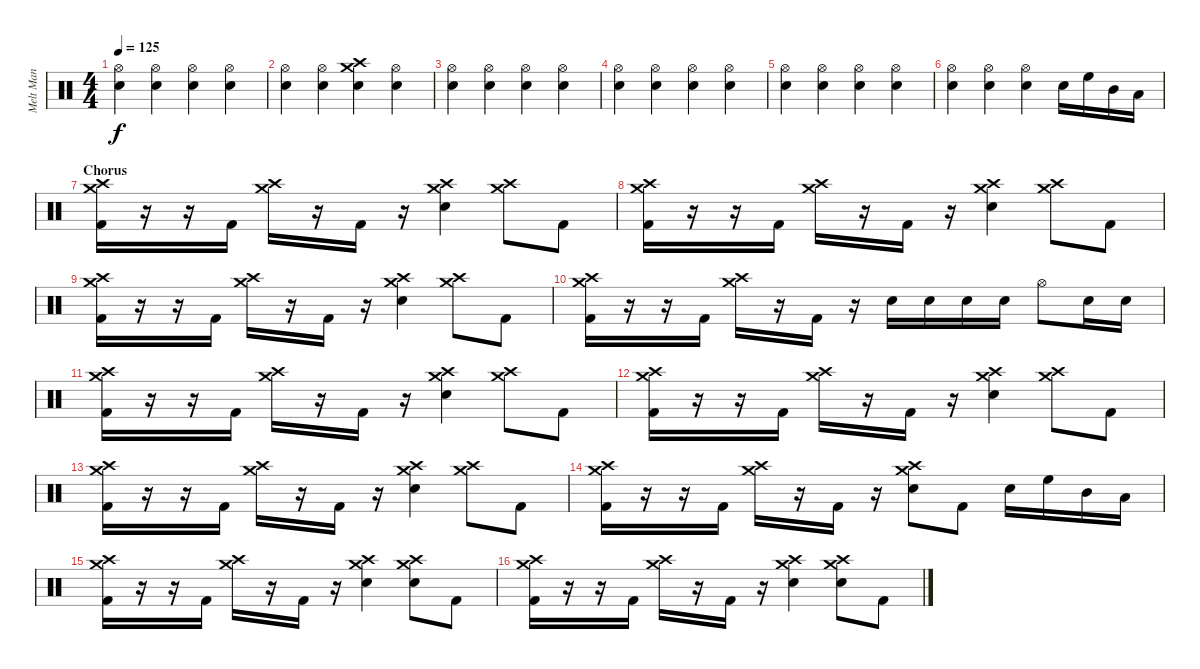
\track ("Melt Man" "Melt Man") {instrument percussion}
\staff {score}
\articulation defaults
\ts (4 4)
\tempo 125
\clef neutral
\ks c
("Hi-Hat (open)" "Snare (hit) 2").4{dy f} ("Hi-Hat (open)" "Snare (hit) 2").4 ("Hi-Hat (open)" "Snare (hit) 2").4 ("Hi-Hat (open)" "Snare (hit) 2").4 |
("Hi-Hat (open)" "Snare (hit) 2").4 ("Hi-Hat (open)" "Snare (hit) 2").4 ("Crash medium (hit)" "Crash high (hit)" "Snare (hit) 2").4 ("Hi-Hat (open)" "Snare (hit) 2").4 |
("Hi-Hat (open)" "Snare (hit) 2").4 ("Hi-Hat (open)" "Snare (hit) 2").4 ("Hi-Hat (open)" "Snare (hit) 2").4 ("Hi-Hat (open)" "Snare (hit) 2").4 |
("Hi-Hat (open)" "Snare (hit) 2").4 ("Hi-Hat (open)" "Snare (hit) 2").4 ("Hi-Hat (open)" "Snare (hit) 2").4 ("Hi-Hat (open)" "Snare (hit) 2").4 |
("Hi-Hat (open)" "Snare (hit) 2").4 ("Hi-Hat (open)" "Snare (hit) 2").4 ("Hi-Hat (open)" "Snare (hit) 2").4 ("Hi-Hat (open)" "Snare (hit) 2").4 |
("Hi-Hat (open)" "Snare (hit) 2").4 ("Hi-Hat (open)" "Snare (hit) 2").4 ("Hi-Hat (open)" "Snare (hit) 2").4 "Snare (hit) 2".16 "High Floor Tom (hit)".16 "Mid Tom (hit)".16 "Low Tom (hit)".16 |
\section ("" "Chorus")
("Crash high (hit)" "Crash medium (hit)" "Kick (hit) 2").16 r.16 r.16 "Kick (hit) 2".16 ("Crash high (hit)" "Crash medium (hit)").16 r.16 "Kick (hit) 2".16 r.16 ("Crash high (hit)" "Crash medium (hit)" "Snare (hit) 2").4 ("Crash high (hit)" "Crash medium (hit)").8 "Kick (hit) 2".8 |
("Crash high (hit)" "Crash medium (hit)" "Kick (hit) 2").16 r.16 r.16 "Kick (hit) 2".16 ("Crash high (hit)" "Crash medium (hit)").16 r.16 "Kick (hit) 2".16 r.16 ("Crash high (hit)" "Crash medium (hit)" "Snare (hit) 2").4 ("Crash high (hit)" "Crash medium (hit)").8 "Kick (hit) 2".8 |
("Crash high (hit)" "Crash medium (hit)" "Kick (hit) 2").16 r.16 r.16 "Kick (hit) 2".16 ("Crash high (hit)" "Crash medium (hit)").16 r.16 "Kick (hit) 2".16 r.16 ("Crash high (hit)" "Crash medium (hit)" "Snare (hit) 2").4 ("Crash high (hit)" "Crash medium (hit)").8 "Kick (hit) 2".8 |
("Crash high (hit)" "Crash medium (hit)" "Kick (hit) 2").16 r.16 r.16 "Kick (hit) 2".16 ("Crash high (hit)" "Crash medium (hit)").16 r.16 "Kick (hit) 2".16 r.16 "Snare (hit) 2".16 "Snare (hit) 2".16 "Snare (hit) 2".16 "Snare (hit) 2".16 "Hi-Hat (open)".8 "Snare (hit) 2".16 "Snare (hit) 2".16 |
("Crash high (hit)" "Crash medium (hit)" "Kick (hit) 2").16 r.16 r.16 "Kick (hit) 2".16 ("Crash high (hit)" "Crash medium (hit)").16 r.16 "Kick (hit) 2".16 r.16 ("Crash high (hit)" "Crash medium (hit)" "Snare (hit) 2").4 ("Crash high (hit)" "Crash medium (hit)").8 "Kick (hit) 2".8 |
("Crash high (hit)" "Crash medium (hit)" "Kick (hit) 2").16 r.16 r.16 "Kick (hit) 2".16 ("Crash high (hit)" "Crash medium (hit)").16 r.16 "Kick (hit) 2".16 r.16 ("Crash high (hit)" "Crash medium (hit)" "Snare (hit) 2").4 ("Crash high (hit)" "Crash medium (hit)").8 "Kick (hit) 2".8 |
("Crash high (hit)" "Crash medium (hit)" "Kick (hit) 2").16 r.16 r.16 "Kick (hit) 2".16 ("Crash high (hit)" "Crash medium (hit)").16 r.16 "Kick (hit) 2".16 r.16 ("Crash high (hit)" "Crash medium (hit)" "Snare (hit) 2").4 ("Crash high (hit)" "Crash medium (hit)").8 "Kick (hit) 2".8 |
("Crash high (hit)" "Crash medium (hit)" "Kick (hit) 2").16 r.16 r.16 "Kick (hit) 2".16 ("Crash high (hit)" "Crash medium (hit)").16 r.16 "Kick (hit) 2".16 r.16 ("Crash medium (hit)" "Crash high (hit)" "Snare (hit) 2").8 "Kick (hit) 2".8 "Snare (hit) 2".16 "High Floor Tom (hit)".16 "Mid Tom (hit)".16 "Low Tom (hit)".16 |
("Crash high (hit)" "Crash medium (hit)" "Kick (hit) 2").16 r.16 r.16 "Kick (hit) 2".16 ("Crash high (hit)" "Crash medium (hit)").16 r.16 "Kick (hit) 2".16 r.16 ("Crash high (hit)" "Crash medium (hit)" "Snare (hit) 2").4 ("Crash high (hit)" "Crash medium (hit)" "Snare (hit) 2").8 "Kick (hit) 2".8 |
("Crash high (hit)" "Crash medium (hit)" "Kick (hit) 2").16 r.16 r.16 "Kick (hit) 2".16 ("Crash high (hit)" "Crash medium (hit)").16 r.16 "Kick (hit) 2".16 r.16 ("Crash high (hit)" "Crash medium (hit)" "Snare (hit) 2").4 ("Crash high (hit)" "Crash medium (hit)" "Snare (hit) 2").8 "Kick (hit) 2".8
